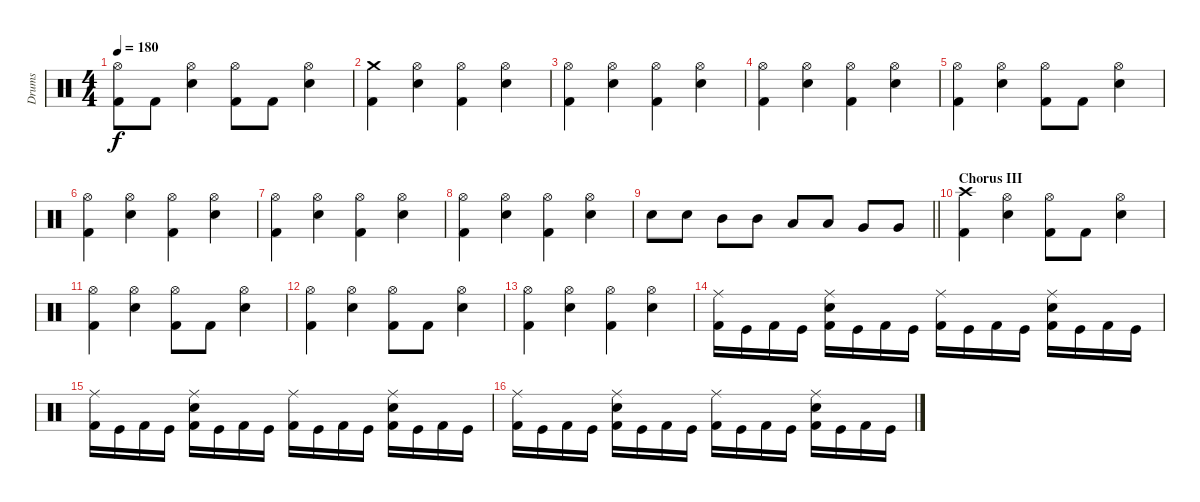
\track ("Drums" "Drums") {instrument percussion}
\staff {score}
\articulation defaults
\ts (4 4)
\tempo 180
\clef neutral
\ks c
("Hi-Hat (open)" "Kick (hit) 2").8{dy f} "Kick (hit) 2".8 ("Hi-Hat (open)" "Electric Snare (hit)").4 ("Hi-Hat (open)" "Kick (hit) 2").8 "Kick (hit) 2".8 ("Hi-Hat (open)" "Electric Snare (hit)").4 |
("Crash medium (hit)" "Kick (hit) 2").4 ("Hi-Hat (open)" "Electric Snare (hit)").4 ("Hi-Hat (open)" "Kick (hit) 2").4 ("Hi-Hat (open)" "Electric Snare (hit)").4 |
("Hi-Hat (open)" "Kick (hit) 2").4 ("Hi-Hat (open)" "Electric Snare (hit)").4 ("Hi-Hat (open)" "Kick (hit) 2").4 ("Hi-Hat (open)" "Electric Snare (hit)").4 |
("Hi-Hat (open)" "Kick (hit) 2").4 ("Hi-Hat (open)" "Electric Snare (hit)").4 ("Hi-Hat (open)" "Kick (hit) 2").4 ("Hi-Hat (open)" "Electric Snare (hit)").4 |
("Hi-Hat (open)" "Kick (hit) 2").4 ("Hi-Hat (open)" "Electric Snare (hit)").4 ("Hi-Hat (open)" "Kick (hit) 2").8 "Kick (hit) 2".8 ("Hi-Hat (open)" "Electric Snare (hit)").4 |
("Hi-Hat (open)" "Kick (hit) 2").4 ("Hi-Hat (open)" "Electric Snare (hit)").4 ("Hi-Hat (open)" "Kick (hit) 2").4 ("Hi-Hat (open)" "Electric Snare (hit)").4 |
("Hi-Hat (open)" "Kick (hit) 2").4 ("Hi-Hat (open)" "Electric Snare (hit)").4 ("Hi-Hat (open)" "Kick (hit) 2").4 ("Hi-Hat (open)" "Electric Snare (hit)").4 |
("Hi-Hat (open)" "Kick (hit) 2").4 ("Hi-Hat (open)" "Electric Snare (hit)").4 ("Hi-Hat (open)" "Kick (hit) 2").4 ("Hi-Hat (open)" "Electric Snare (hit)").4 |
\barLineRight lightlight "Electric Snare (hit)".8 "Electric Snare (hit)".8 "Mid Tom (hit)".8 "Mid Tom (hit)".8 "Low Tom (hit)".8 "Low Tom (hit)".8 "Very Low Tom (hit)".8 "Very Low Tom (hit)".8
|
\section ("" "Chorus III")
("Crash high (hit)" "Kick (hit) 2").4 ("Hi-Hat (open)" "Electric Snare (hit)").4 ("Hi-Hat (open)" "Kick (hit) 2").8 "Kick (hit) 2".8 ("Hi-Hat (open)" "Electric Snare (hit)").4 |
("Hi-Hat (open)" "Kick (hit) 2").4 ("Hi-Hat (open)" "Electric Snare (hit)").4 ("Hi-Hat (open)" "Kick (hit) 2").8 "Kick (hit) 2".8 ("Hi-Hat (open)" "Electric Snare (hit)").4 |
("Hi-Hat (open)" "Kick (hit) 2").4 ("Hi-Hat (open)" "Electric Snare (hit)").4 ("Hi-Hat (open)" "Kick (hit) 2").8 "Kick (hit) 2".8 ("Hi-Hat (open)" "Electric Snare (hit)").4 |
("Hi-Hat (open)" "Kick (hit) 2").4 ("Hi-Hat (open)" "Electric Snare (hit)").4 ("Hi-Hat (open)" "Kick (hit) 2").4 ("Hi-Hat (open)" "Electric Snare (hit)").4 |
("Ride (middle)" "Kick (hit) 2").16 "Kick (hit)".16 "Kick (hit) 2".16 "Kick (hit)".16 ("Ride (middle)" "Electric Snare (hit)" "Kick (hit) 2").16 "Kick (hit)".16 "Kick (hit) 2".16 "Kick (hit)".16 ("Ride (middle)" "Kick (hit) 2").16 "Kick (hit)".16 "Kick (hit) 2".16 "Kick (hit)".16 ("Ride (middle)" "Electric Snare (hit)" "Kick (hit) 2").16 "Kick (hit)".16 "Kick (hit) 2".16 "Kick (hit)".16 |
("Ride (middle)" "Kick (hit) 2").16 "Kick (hit)".16 "Kick (hit) 2".16 "Kick (hit)".16 ("Ride (middle)" "Electric Snare (hit)" "Kick (hit) 2").16 "Kick (hit)".16 "Kick (hit) 2".16 "Kick (hit)".16 ("Ride (middle)" "Kick (hit) 2").16 "Kick (hit)".16 "Kick (hit) 2".16 "Kick (hit)".16 ("Ride (middle)" "Electric Snare (hit)" "Kick (hit) 2").16 "Kick (hit)".16 "Kick (hit) 2".16 "Kick (hit)".16 |
("Ride (middle)" "Kick (hit) 2").16 "Kick (hit)".16 "Kick (hit) 2".16 "Kick (hit)".16 ("Ride (middle)" "Electric Snare (hit)" "Kick (hit) 2").16 "Kick (hit)".16 "Kick (hit) 2".16 "Kick (hit)".16 ("Ride (middle)" "Kick (hit) 2").16 "Kick (hit)".16 "Kick (hit) 2".16 "Kick (hit)".16 ("Ride (middle)" "Electric Snare (hit)" "Kick (hit) 2").16 "Kick (hit)".16 "Kick (hit) 2".16 "Kick (hit)".16
